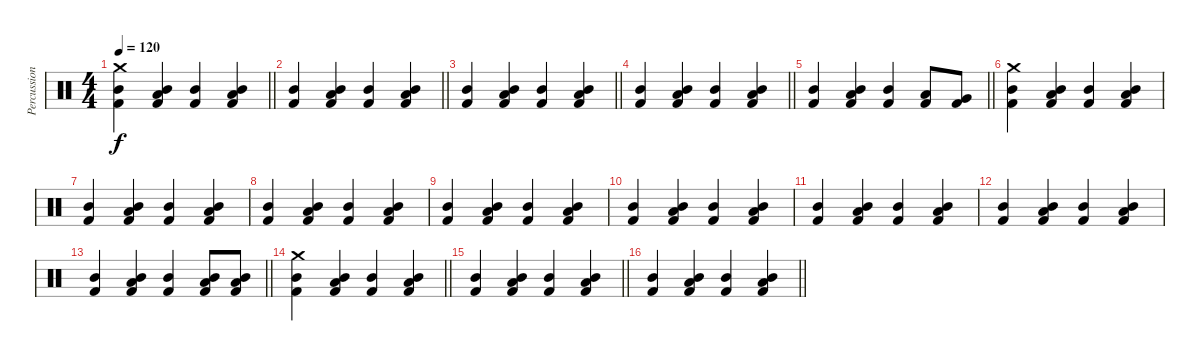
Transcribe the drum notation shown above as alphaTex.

\track ("Percussion" "Percussion") {instrument percussion}
\staff {score}
\articulation defaults
\ts (4 4)
\tempo 120
\clef neutral
\barLineRight lightlight
\ks c
("Crash medium (hit)" "Mid Tom (hit)" "Kick (hit) 2").4{dy f} ("Mid Tom (hit)" "Low Floor Tom (hit)" "Kick (hit) 2").4 ("Mid Tom (hit)" "Kick (hit) 2").4 ("Mid Tom (hit)" "Low Floor Tom (hit)" "Kick (hit) 2").4 |
\barLineRight lightlight
("Mid Tom (hit)" "Kick (hit) 2").4 ("Mid Tom (hit)" "Low Floor Tom (hit)" "Kick (hit) 2").4 ("Mid Tom (hit)" "Kick (hit) 2").4 ("Mid Tom (hit)" "Low Floor Tom (hit)" "Kick (hit) 2").4 |
\barLineRight lightlight
("Mid Tom (hit)" "Kick (hit) 2").4 ("Mid Tom (hit)" "Low Floor Tom (hit)" "Kick (hit) 2").4 ("Mid Tom (hit)" "Kick (hit) 2").4 ("Mid Tom (hit)" "Low Floor Tom (hit)" "Kick (hit) 2").4 |
\barLineRight lightlight
("Mid Tom (hit)" "Kick (hit) 2").4 ("Mid Tom (hit)" "Low Floor Tom (hit)" "Kick (hit) 2").4 ("Mid Tom (hit)" "Kick (hit) 2").4 ("Mid Tom (hit)" "Low Floor Tom (hit)" "Kick (hit) 2").4 |
\barLineRight lightlight
("Mid Tom (hit)" "Kick (hit) 2").4 ("Mid Tom (hit)" "Low Floor Tom (hit)" "Kick (hit) 2").4 ("Mid Tom (hit)" "Kick (hit) 2").4 ("Low Floor Tom (hit)" "Kick (hit) 2").8 ("Very Low Tom (hit)" "Kick (hit) 2").8 |
\section ("" "")
("Crash medium (hit)" "Mid Tom (hit)" "Kick (hit) 2").4 ("Mid Tom (hit)" "Low Floor Tom (hit)" "Kick (hit) 2").4 ("Mid Tom (hit)" "Kick (hit) 2").4 ("Mid Tom (hit)" "Low Floor Tom (hit)" "Kick (hit) 2").4 |
("Mid Tom (hit)" "Kick (hit) 2").4 ("Mid Tom (hit)" "Low Floor Tom (hit)" "Kick (hit) 2").4 ("Mid Tom (hit)" "Kick (hit) 2").4 ("Mid Tom (hit)" "Low Floor Tom (hit)" "Kick (hit) 2").4 |
("Mid Tom (hit)" "Kick (hit) 2").4 ("Mid Tom (hit)" "Low Floor Tom (hit)" "Kick (hit) 2").4 ("Mid Tom (hit)" "Kick (hit) 2").4 ("Mid Tom (hit)" "Low Floor Tom (hit)" "Kick (hit) 2").4 |
("Mid Tom (hit)" "Kick (hit) 2").4 ("Mid Tom (hit)" "Low Floor Tom (hit)" "Kick (hit) 2").4 ("Mid Tom (hit)" "Kick (hit) 2").4 ("Mid Tom (hit)" "Low Floor Tom (hit)" "Kick (hit) 2").4 |
("Mid Tom (hit)" "Kick (hit) 2").4 ("Mid Tom (hit)" "Low Floor Tom (hit)" "Kick (hit) 2").4 ("Mid Tom (hit)" "Kick (hit) 2").4 ("Mid Tom (hit)" "Low Floor Tom (hit)" "Kick (hit) 2").4 |
("Mid Tom (hit)" "Kick (hit) 2").4 ("Mid Tom (hit)" "Low Floor Tom (hit)" "Kick (hit) 2").4 ("Mid Tom (hit)" "Kick (hit) 2").4 ("Mid Tom (hit)" "Low Floor Tom (hit)" "Kick (hit) 2").4 |
("Mid Tom (hit)" "Kick (hit) 2").4 ("Mid Tom (hit)" "Low Floor Tom (hit)" "Kick (hit) 2").4 ("Mid Tom (hit)" "Kick (hit) 2").4 ("Mid Tom (hit)" "Low Floor Tom (hit)" "Kick (hit) 2").4 |
\barLineRight lightlight
("Mid Tom (hit)" "Kick (hit) 2").4 ("Mid Tom (hit)" "Low Floor Tom (hit)" "Kick (hit) 2").4 ("Mid Tom (hit)" "Kick (hit) 2").4 ("Mid Tom (hit)" "Low Floor Tom (hit)" "Kick (hit) 2").8 ("Mid Tom (hit)" "Low Floor Tom (hit)" "Kick (hit) 2").8 |
\section ("" "")
\barLineRight lightlight
("Crash medium (hit)" "Mid Tom (hit)" "Kick (hit) 2").4 ("Mid Tom (hit)" "Low Floor Tom (hit)" "Kick (hit) 2").4 ("Mid Tom (hit)" "Kick (hit) 2").4 ("Mid Tom (hit)" "Low Floor Tom (hit)" "Kick (hit) 2").4 |
\barLineRight lightlight
("Mid Tom (hit)" "Kick (hit) 2").4 ("Mid Tom (hit)" "Low Floor Tom (hit)" "Kick (hit) 2").4 ("Mid Tom (hit)" "Kick (hit) 2").4 ("Mid Tom (hit)" "Low Floor Tom (hit)" "Kick (hit) 2").4 |
\barLineRight lightlight
("Mid Tom (hit)" "Kick (hit) 2").4 ("Mid Tom (hit)" "Low Floor Tom (hit)" "Kick (hit) 2").4 ("Mid Tom (hit)" "Kick (hit) 2").4 ("Mid Tom (hit)" "Low Floor Tom (hit)" "Kick (hit) 2").4
